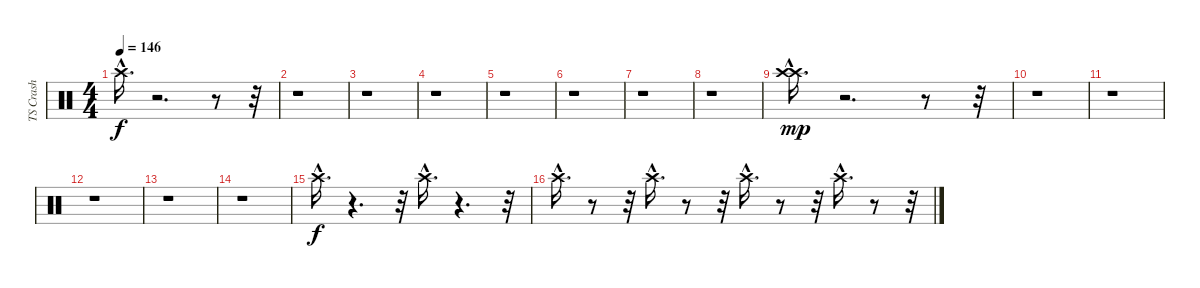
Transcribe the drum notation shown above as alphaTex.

\track ("TS Crash" "TS Crash") {instrument percussion}
\staff {score}
\articulation defaults
\ts (4 4)
\tempo 146
\clef neutral
\ks c "Crash high (hit)"{hac}.16{d dy f}
r.2{d} r.8 r.32 |
r.1 |
r.1 |
r.1 |
r.1 |
r.1 |
r.1 |
r.1 |
("Crash high (hit)"{hac} "Crash high (hit)"{hac}).16{d dy mp} r.2{d} r.8 r.32 |
r.1 |
r.1 |
r.1 |
r.1 |
r.1 |
"Crash high (hit)"{hac}.16{d dy f} r.4{d} r.32 "Crash high (hit)"{hac}.16{d} r.4{d} r.32 |
"Crash high (hit)"{hac}.16{d} r.8 r.32 "Crash high (hit)"{hac}.16{d} r.8 r.32 "Crash high (hit)"{hac}.16{d} r.8 r.32 "Crash high (hit)"{hac}.16{d} r.8 r.32
